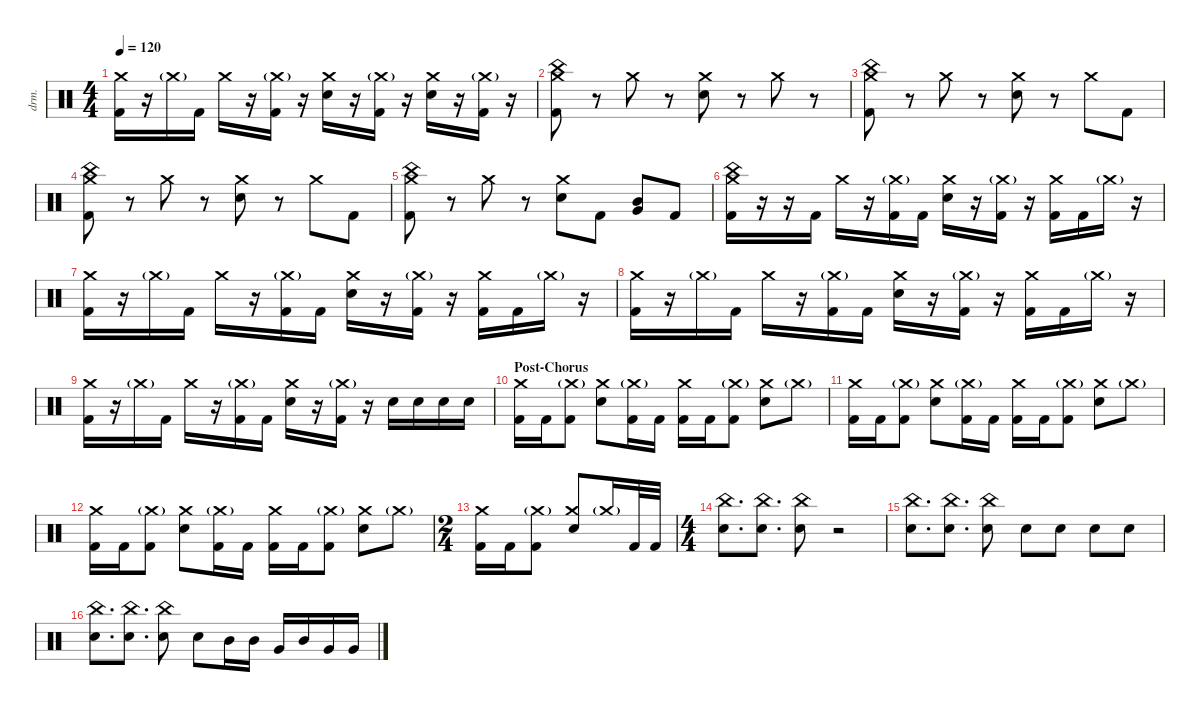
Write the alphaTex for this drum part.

\defaultSystemsLayout 4
\hideDynamics
\bracketExtendMode nobrackets
\track ("Drums - Mario" "drm.") {instrument percussion}
\staff {score}
\articulation defaults
\ts (4 4)
\tempo 120
\clef neutral
\ks c
("Kick (hit) 2" "Crash medium (hit)").16{dy ff beam Down} r.16{beam Down} "Crash medium (hit)"{g}.16{beam Down} "Kick (hit) 2".16{beam Down} "Crash medium (hit)".16{beam Down} r.16{beam Down} ("Kick (hit) 2" "Crash medium (hit)"{g}).16{beam Down} r.16{beam Down} ("Snare (hit) 2" "Crash medium (hit)").16{beam Down} r.16{beam Down} ("Kick (hit) 2" "Crash medium (hit)"{g}).16{beam Down} r.16{beam Down} ("Snare (hit) 2" "Crash medium (hit)").16{beam Down} r.16{beam Down} ("Kick (hit) 2" "Crash medium (hit)"{g}).16{beam Down} r.16{beam Down} |
("Kick (hit) 2" "Crash medium (hit)" "China (hit)").8{beam Down} r.8{beam Down} "Crash medium (hit)".8{beam Down} r.8{beam Down} ("Crash medium (hit)" "Snare (hit) 2").8{beam Down} r.8{beam Down} "Crash medium (hit)".8{beam Down} r.8{beam Down} |
("Kick (hit) 2" "Crash medium (hit)" "China (hit)").8{beam Down} r.8{beam Down} "Crash medium (hit)".8{beam Down} r.8{beam Down} ("Crash medium (hit)" "Snare (hit) 2").8{beam Down} r.8{beam Down} "Crash medium (hit)".8{beam Down} "Kick (hit) 2".8{beam Down} |
("Kick (hit) 2" "Crash medium (hit)" "China (hit)").8{beam Down} r.8{beam Down} "Crash medium (hit)".8{beam Down} r.8{beam Down} ("Crash medium (hit)" "Snare (hit) 2").8{beam Down} r.8{beam Down} "Crash medium (hit)".8{beam Down} "Kick (hit) 2".8{beam Down} |
("Kick (hit) 2" "Crash medium (hit)" "China (hit)").8{beam Down} r.8{beam Down} "Crash medium (hit)".8{beam Down} r.8{beam Down} ("Crash medium (hit)" "Snare (hit) 2").8{beam Down} "Kick (hit) 2".8{beam Down} ("Very Low Tom (hit)" "Mid Tom (hit)").8{beam Up} "Kick (hit) 2".8{beam Up} |
("China (hit)" "Kick (hit) 2" "Crash medium (hit)").16{beam Down} r.16{beam Down} r.16{beam Down} "Kick (hit) 2".16{beam Down} "Crash medium (hit)".16{beam Down} r.16{beam Down} ("Kick (hit) 2" "Crash medium (hit)"{g}).16{beam Down} "Kick (hit) 2".16{beam Down} ("Snare (hit) 2" "Crash medium (hit)").16{beam Down} r.16{beam Down} ("Kick (hit) 2" "Crash medium (hit)"{g}).16{beam Down} r.16{beam Down} ("Kick (hit) 2" "Crash medium (hit)").16{beam Down} "Kick (hit) 2".16{beam Down} "Crash medium (hit)"{g}.16{beam Down} r.16{beam Down} |
("Kick (hit) 2" "Crash medium (hit)").16{beam Down} r.16{beam Down} "Crash medium (hit)"{g}.16{beam Down} "Kick (hit) 2".16{beam Down} "Crash medium (hit)".16{beam Down} r.16{beam Down} ("Kick (hit) 2" "Crash medium (hit)"{g}).16{beam Down} "Kick (hit) 2".16{beam Down} ("Snare (hit) 2" "Crash medium (hit)").16{beam Down} r.16{beam Down} ("Kick (hit) 2" "Crash medium (hit)"{g}).16{beam Down} r.16{beam Down} ("Kick (hit) 2" "Crash medium (hit)").16{beam Down} "Kick (hit) 2".16{beam Down} "Crash medium (hit)"{g}.16{beam Down} r.16{beam Down} |
("Kick (hit) 2" "Crash medium (hit)").16{beam Down} r.16{beam Down} "Crash medium (hit)"{g}.16{beam Down} "Kick (hit) 2".16{beam Down} "Crash medium (hit)".16{beam Down} r.16{beam Down} ("Kick (hit) 2" "Crash medium (hit)"{g}).16{beam Down} "Kick (hit) 2".16{beam Down} ("Snare (hit) 2" "Crash medium (hit)").16{beam Down} r.16{beam Down} ("Kick (hit) 2" "Crash medium (hit)"{g}).16{beam Down} r.16{beam Down} ("Kick (hit) 2" "Crash medium (hit)").16{beam Down} "Kick (hit) 2".16{beam Down} "Crash medium (hit)"{g}.16{beam Down} r.16{beam Down} |
("Kick (hit) 2" "Crash medium (hit)").16{beam Down} r.16{beam Down} "Crash medium (hit)"{g}.16{beam Down} "Kick (hit) 2".16{beam Down} "Crash medium (hit)".16{beam Down} r.16{beam Down} ("Kick (hit) 2" "Crash medium (hit)"{g}).16{beam Down} "Kick (hit) 2".16{beam Down} ("Snare (hit) 2" "Crash medium (hit)").16{beam Down} r.16{beam Down} ("Kick (hit) 2" "Crash medium (hit)"{g}).16{beam Down} r.16{beam Down} "Snare (hit) 2".16{beam Down} "Snare (hit) 2".16{beam Down} "Snare (hit) 2".16{beam Down} "Snare (hit) 2".16{beam Down} |
\section ("" "Post-Chorus")
("Kick (hit) 2" "Crash medium (hit)").16{beam Down} "Kick (hit) 2".16{beam Down} ("Kick (hit) 2" "Crash medium (hit)"{g}).8{beam Down} ("Snare (hit) 2" "Crash medium (hit)").8{beam Down} ("Kick (hit) 2" "Crash medium (hit)"{g}).16{beam Down} "Kick (hit) 2".16{beam Down} ("Kick (hit) 2" "Crash medium (hit)").16{beam Down} "Kick (hit) 2".16{beam Down} ("Kick (hit) 2" "Crash medium (hit)"{g}).8{beam Down} ("Snare (hit) 2" "Crash medium (hit)").8{beam Down} "Crash medium (hit)"{g}.8{beam Down} |
("Kick (hit) 2" "Crash medium (hit)").16{beam Down} "Kick (hit) 2".16{beam Down} ("Kick (hit) 2" "Crash medium (hit)"{g}).8{beam Down} ("Snare (hit) 2" "Crash medium (hit)").8{beam Down} ("Kick (hit) 2" "Crash medium (hit)"{g}).16{beam Down} "Kick (hit) 2".16{beam Down} ("Kick (hit) 2" "Crash medium (hit)").16{beam Down} "Kick (hit) 2".16{beam Down} ("Kick (hit) 2" "Crash medium (hit)"{g}).8{beam Down} ("Snare (hit) 2" "Crash medium (hit)").8{beam Down} "Crash medium (hit)"{g}.8{beam Down} |
("Kick (hit) 2" "Crash medium (hit)").16{beam Down} "Kick (hit) 2".16{beam Down} ("Kick (hit) 2" "Crash medium (hit)"{g}).8{beam Down} ("Snare (hit) 2" "Crash medium (hit)").8{beam Down} ("Kick (hit) 2" "Crash medium (hit)"{g}).16{beam Down} "Kick (hit) 2".16{beam Down} ("Kick (hit) 2" "Crash medium (hit)").16{beam Down} "Kick (hit) 2".16{beam Down} ("Kick (hit) 2" "Crash medium (hit)"{g}).8{beam Down} ("Snare (hit) 2" "Crash medium (hit)").8{beam Down} "Crash medium (hit)"{g}.8{beam Down} |
\ts (2 4)
\beaming (8 2 2)
("Kick (hit) 2" "Crash medium (hit)").16{beam Down} "Kick (hit) 2".16{beam Down} ("Kick (hit) 2" "Crash medium (hit)"{g}).8{beam Down} ("Snare (hit) 2" "Crash medium (hit)").8{beam Up} "Crash medium (hit)"{g}.16{beam Up} "Kick (hit) 2".32{beam Up} "Kick (hit) 2".32{beam Up} |
\ts (4 4)
\beaming (8 2 2 2 2)
("Snare (hit) 2" "China (hit)").8{d beam Down} ("Snare (hit) 2" "China (hit)").8{d beam Down} ("Snare (hit) 2" "China (hit)").8{beam Down} r.2{beam Down} |
("Snare (hit) 2" "China (hit)").8{d beam Down} ("Snare (hit) 2" "China (hit)").8{d beam Down} ("Snare (hit) 2" "China (hit)").8{beam Down} "Snare (hit) 2".8{beam Down} "Snare (hit) 2".8{beam Down} "Snare (hit) 2".8{beam Down} "Snare (hit) 2".8{beam Down} |
("Snare (hit) 2" "China (hit)").8{d beam Down} ("Snare (hit) 2" "China (hit)").8{d beam Down} ("Snare (hit) 2" "China (hit)").8{beam Down} "Snare (hit) 2".8{beam Down} "Mid Tom (hit)".16{beam Down} "Mid Tom (hit)".16{beam Down} "Very Low Tom (hit)".16{beam Up} "Mid Tom (hit)".16{beam Up} "Very Low Tom (hit)".16{beam Up} "Very Low Tom (hit)".16{beam Up}
